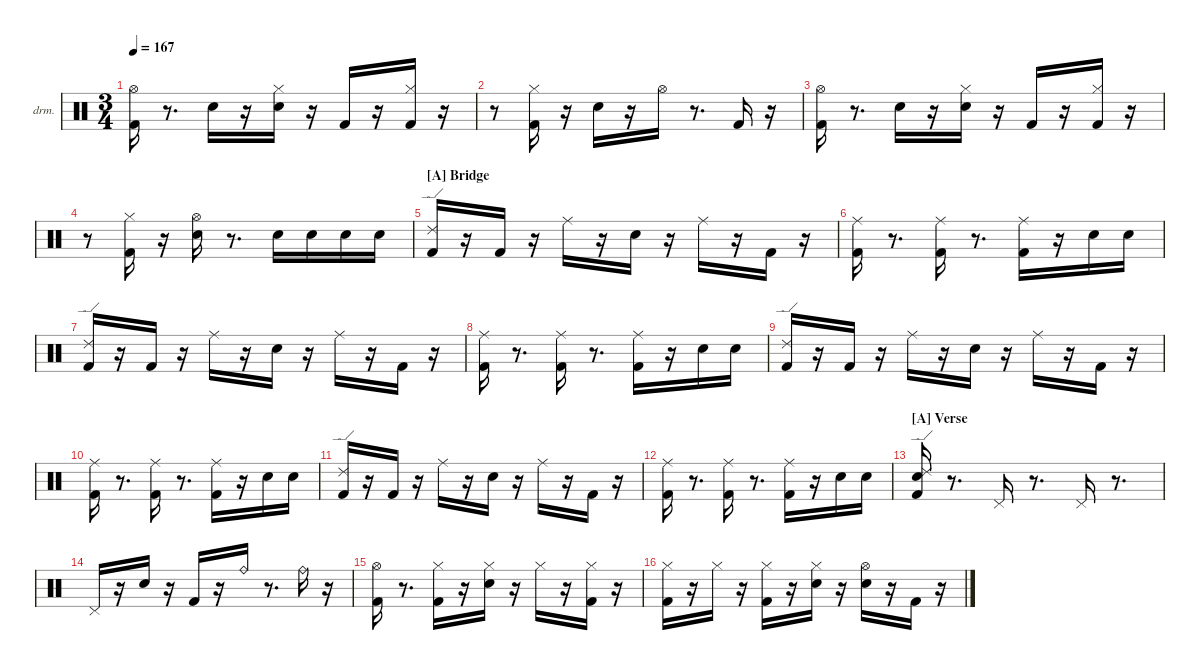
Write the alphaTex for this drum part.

\hideDynamics
\bracketExtendMode nobrackets
\firstSystemTrackNameOrientation horizontal
\otherSystemsTrackNameOrientation horizontal
\track ("Drums" "drm.") {instrument percussion}
\staff {score}
\articulation defaults
\ts (3 4)
\tempo 167
\clef neutral
\ks aminor
("Kick (hit) 2" "Hi-Hat (open)"{acc #}).16{dy ff beam Down} r.8{d beam Down} "Snare (hit) 2".16{dy pp beam Down} r.16{beam Down} ("Snare (hit) 2" "Hi-Hat (closed)"{acc #}).16{dy ppp beam Down} r.16{beam Down} "Kick (hit) 2".16{dy mf beam Up} r.16{beam Up} ("Kick (hit) 2" "Hi-Hat (closed)"{acc #}).16{dy ff beam Down} r.16{beam Down} |
r.8{beam Down} ("Kick (hit) 2" "Hi-Hat (closed)"{acc #}).16{dy fff beam Down} r.16{beam Down} "Snare (hit) 2".16{dy ff beam Down} r.16{beam Down} "Hi-Hat (open)"{acc #}.16{beam Down} r.8{d beam Down} "Kick (hit) 2".16{dy f beam Up} r.16{beam Up} |
("Kick (hit) 2" "Hi-Hat (open)"{acc #}).16{dy ff beam Down} r.8{d beam Down} "Snare (hit) 2".16{dy pp beam Down} r.16{beam Down} ("Snare (hit) 2" "Hi-Hat (closed)"{acc #}).16{dy ppp beam Down} r.16{beam Down} "Kick (hit) 2".16{dy mf beam Up} r.16{beam Up} ("Kick (hit) 2" "Hi-Hat (closed)"{acc #}).16{dy ff beam Down} r.16{beam Down} |
r.8{beam Down} ("Kick (hit) 2" "Hi-Hat (closed)"{acc #}).16{dy fff beam Down} r.16{beam Down} ("Snare (hit) 2" "Hi-Hat (open)"{acc #}).16{beam Down} r.8{d beam Down} "Snare (hit) 2".16{dy p beam Down} "Snare (hit) 2".16{dy ppp beam Down} "Snare (hit) 2".16{dy p beam Down} "Snare (hit) 2".16{dy ppp beam Down} |
\section ("A" "Bridge")
("Kick (hit) 2" "Ride (edge) 2").16{dy f beam Up} r.16{beam Up} "Kick (hit) 2".16{dy fff beam Up} r.16{beam Up} "Ride (middle)"{acc #}.16{dy mf beam Down} r.16{beam Down} "Snare (hit) 2".16{dy fff beam Down} r.16{beam Down} "Ride (middle)"{acc #}.16{dy f beam Down} r.16{beam Down} "Kick (hit) 2".16{beam Up} r.16{beam Up} |
("Kick (hit) 2" "Ride (middle)"{acc #}).16{dy ff beam Down} r.8{d beam Down} ("Kick (hit) 2" "Ride (middle)"{acc #}).16{dy mf beam Down} r.8{d beam Down} ("Kick (hit) 2" "Ride (middle)"{acc #}).16{dy ff beam Down} r.16{beam Down} "Snare (hit) 2".16{dy mf beam Down} "Snare (hit) 2".16{dy ppp beam Down} |
("Kick (hit) 2" "Ride (edge) 2").16{dy f beam Up} r.16{beam Up} "Kick (hit) 2".16{dy fff beam Up} r.16{beam Up} "Ride (middle)"{acc #}.16{dy mf beam Down} r.16{beam Down} "Snare (hit) 2".16{dy fff beam Down} r.16{beam Down} "Ride (middle)"{acc #}.16{dy f beam Down} r.16{beam Down} "Kick (hit) 2".16{beam Up} r.16{beam Up} |
("Kick (hit) 2" "Ride (middle)"{acc #}).16{dy ff beam Down} r.8{d beam Down} ("Kick (hit) 2" "Ride (middle)"{acc #}).16{dy mf beam Down} r.8{d beam Down} ("Kick (hit) 2" "Ride (middle)"{acc #}).16{dy ff beam Down} r.16{beam Down} "Snare (hit) 2".16{dy mf beam Down} "Snare (hit) 2".16{dy ppp beam Down} |
("Kick (hit) 2" "Ride (edge) 2").16{dy f beam Up} r.16{beam Up} "Kick (hit) 2".16{dy fff beam Up} r.16{beam Up} "Ride (middle)"{acc #}.16{dy mf beam Down} r.16{beam Down} "Snare (hit) 2".16{dy fff beam Down} r.16{beam Down} "Ride (middle)"{acc #}.16{dy f beam Down} r.16{beam Down} "Kick (hit) 2".16{beam Up} r.16{beam Up} |
("Kick (hit) 2" "Ride (middle)"{acc #}).16{dy ff beam Down} r.8{d beam Down} ("Kick (hit) 2" "Ride (middle)"{acc #}).16{dy mf beam Down} r.8{d beam Down} ("Kick (hit) 2" "Ride (middle)"{acc #}).16{dy ff beam Down} r.16{beam Down} "Snare (hit) 2".16{dy mf beam Down} "Snare (hit) 2".16{dy ppp beam Down} |
("Kick (hit) 2" "Ride (edge) 2").16{dy f beam Up} r.16{beam Up} "Kick (hit) 2".16{dy fff beam Up} r.16{beam Up} "Ride (middle)"{acc #}.16{dy mf beam Down} r.16{beam Down} "Snare (hit) 2".16{dy fff beam Down} r.16{beam Down} "Ride (middle)"{acc #}.16{dy f beam Down} r.16{beam Down} "Kick (hit) 2".16{beam Up} r.16{beam Up} |
("Kick (hit) 2" "Ride (middle)"{acc #}).16{dy ff beam Down} r.8{d beam Down} ("Kick (hit) 2" "Ride (middle)"{acc #}).16{dy mf beam Down} r.8{d beam Down} ("Kick (hit) 2" "Ride (middle)"{acc #}).16{dy ff beam Down} r.16{beam Down} "Snare (hit) 2".16{dy mf beam Down} "Snare (hit) 2".16{dy ppp beam Down} |
\section ("A" "Verse")
("Kick (hit) 2" "Snare (hit) 2" "Ride (edge) 2").16{dy fff beam Up} r.8{d beam Up} "Pedal Hi-Hat (hit)"{acc #}.16{beam Up} r.8{d beam Up} "Pedal Hi-Hat (hit)"{acc #}.16{beam Up} r.8{d beam Up} |
"Pedal Hi-Hat (hit)"{acc #}.16{beam Up} r.16{beam Up} "Snare (hit) 2".16{dy ff beam Down} r.16{beam Down} "Kick (hit) 2".16{beam Up} r.16{beam Up} "Ride (bell)".16{beam Down} r.8{d beam Down} "Ride (bell)".16{dy f beam Down} r.16{beam Down} |
("Kick (hit) 2" "Hi-Hat (open)"{acc #}).16{dy ff beam Down} r.8{d beam Down} ("Kick (hit) 2" "Hi-Hat (closed)"{acc #}).16{dy f beam Down} r.16{beam Down} ("Snare (hit) 2" "Hi-Hat (closed)"{acc #}).16{dy ff beam Down} r.16{beam Down} "Hi-Hat (closed)"{acc #}.16{beam Down} r.16{beam Down} ("Kick (hit) 2" "Hi-Hat (closed)"{acc #}).16{dy mf beam Down} r.16{beam Down} |
("Kick (hit) 2" "Hi-Hat (closed)"{acc #}).16{dy fff beam Down} r.16{beam Down} "Hi-Hat (closed)"{acc #}.16{dy p beam Down} r.16{beam Down} ("Kick (hit) 2" "Hi-Hat (closed)"{acc #}).16{dy ff beam Down} r.16{beam Down} ("Snare (hit) 2" "Hi-Hat (closed)"{acc #}).16{beam Down} r.16{beam Down} ("Snare (hit) 2" "Hi-Hat (open)"{acc #}).16{dy ppp beam Down} r.16{beam Down} "Kick (hit) 2".16{dy ff beam Up} r.16{beam Up}
